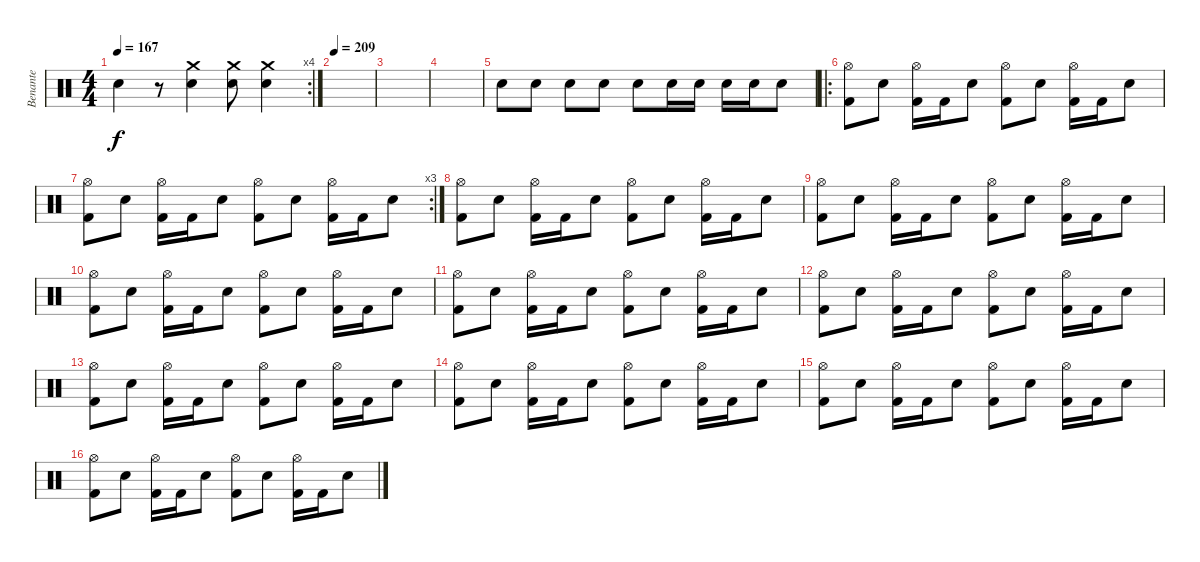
\track ("Benante" "Benante") {solo instrument percussion}
\staff {score}
\articulation defaults
\rc 4
\ts (4 4)
\tempo 167
\clef neutral
\ks c "Electric Snare (hit)".4{dy f}
r.8 ("Electric Snare (hit)" "Crash medium (hit)").4 ("Electric Snare (hit)" "Crash medium (hit)").8 ("Electric Snare (hit)" "Crash medium (hit)").4 |
\tempo 209
|
|
|
"Electric Snare (hit)".8 "Electric Snare (hit)".8 "Electric Snare (hit)".8 "Electric Snare (hit)".8 "Electric Snare (hit)".8 "Electric Snare (hit)".16 "Electric Snare (hit)".16 "Electric Snare (hit)".16 "Electric Snare (hit)".16 "Electric Snare (hit)".8 |
\ro
("Kick (hit) 2" "Hi-Hat (open)").8 "Electric Snare (hit)".8 ("Kick (hit) 2" "Hi-Hat (open)").16 "Kick (hit) 2".16 "Electric Snare (hit)".8 ("Kick (hit) 2" "Hi-Hat (open)").8 "Electric Snare (hit)".8 ("Kick (hit) 2" "Hi-Hat (open)").16 "Kick (hit) 2".16 "Electric Snare (hit)".8 |
\rc 3
("Kick (hit) 2" "Hi-Hat (open)").8 "Electric Snare (hit)".8 ("Kick (hit) 2" "Hi-Hat (open)").16 "Kick (hit) 2".16 "Electric Snare (hit)".8 ("Kick (hit) 2" "Hi-Hat (open)").8 "Electric Snare (hit)".8 ("Kick (hit) 2" "Hi-Hat (open)").16 "Kick (hit) 2".16 "Electric Snare (hit)".8 |
("Kick (hit) 2" "Hi-Hat (open)").8 "Electric Snare (hit)".8 ("Kick (hit) 2" "Hi-Hat (open)").16 "Kick (hit) 2".16 "Electric Snare (hit)".8 ("Kick (hit) 2" "Hi-Hat (open)").8 "Electric Snare (hit)".8 ("Kick (hit) 2" "Hi-Hat (open)").16 "Kick (hit) 2".16 "Electric Snare (hit)".8 |
("Kick (hit) 2" "Hi-Hat (open)").8 "Electric Snare (hit)".8 ("Kick (hit) 2" "Hi-Hat (open)").16 "Kick (hit) 2".16 "Electric Snare (hit)".8 ("Kick (hit) 2" "Hi-Hat (open)").8 "Electric Snare (hit)".8 ("Kick (hit) 2" "Hi-Hat (open)").16 "Kick (hit) 2".16 "Electric Snare (hit)".8 |
("Kick (hit) 2" "Hi-Hat (open)").8 "Electric Snare (hit)".8 ("Kick (hit) 2" "Hi-Hat (open)").16 "Kick (hit) 2".16 "Electric Snare (hit)".8 ("Kick (hit) 2" "Hi-Hat (open)").8 "Electric Snare (hit)".8 ("Kick (hit) 2" "Hi-Hat (open)").16 "Kick (hit) 2".16 "Electric Snare (hit)".8 |
("Kick (hit) 2" "Hi-Hat (open)").8 "Electric Snare (hit)".8 ("Kick (hit) 2" "Hi-Hat (open)").16 "Kick (hit) 2".16 "Electric Snare (hit)".8 ("Kick (hit) 2" "Hi-Hat (open)").8 "Electric Snare (hit)".8 ("Kick (hit) 2" "Hi-Hat (open)").16 "Kick (hit) 2".16 "Electric Snare (hit)".8 |
("Kick (hit) 2" "Hi-Hat (open)").8 "Electric Snare (hit)".8 ("Kick (hit) 2" "Hi-Hat (open)").16 "Kick (hit) 2".16 "Electric Snare (hit)".8 ("Kick (hit) 2" "Hi-Hat (open)").8 "Electric Snare (hit)".8 ("Kick (hit) 2" "Hi-Hat (open)").16 "Kick (hit) 2".16 "Electric Snare (hit)".8 |
("Kick (hit) 2" "Hi-Hat (open)").8 "Electric Snare (hit)".8 ("Kick (hit) 2" "Hi-Hat (open)").16 "Kick (hit) 2".16 "Electric Snare (hit)".8 ("Kick (hit) 2" "Hi-Hat (open)").8 "Electric Snare (hit)".8 ("Kick (hit) 2" "Hi-Hat (open)").16 "Kick (hit) 2".16 "Electric Snare (hit)".8 |
("Kick (hit) 2" "Hi-Hat (open)").8 "Electric Snare (hit)".8 ("Kick (hit) 2" "Hi-Hat (open)").16 "Kick (hit) 2".16 "Electric Snare (hit)".8 ("Kick (hit) 2" "Hi-Hat (open)").8 "Electric Snare (hit)".8 ("Kick (hit) 2" "Hi-Hat (open)").16 "Kick (hit) 2".16 "Electric Snare (hit)".8 |
("Kick (hit) 2" "Hi-Hat (open)").8 "Electric Snare (hit)".8 ("Kick (hit) 2" "Hi-Hat (open)").16 "Kick (hit) 2".16 "Electric Snare (hit)".8 ("Kick (hit) 2" "Hi-Hat (open)").8 "Electric Snare (hit)".8 ("Kick (hit) 2" "Hi-Hat (open)").16 "Kick (hit) 2".16 "Electric Snare (hit)".8 |
("Kick (hit) 2" "Hi-Hat (open)").8 "Electric Snare (hit)".8 ("Kick (hit) 2" "Hi-Hat (open)").16 "Kick (hit) 2".16 "Electric Snare (hit)".8 ("Kick (hit) 2" "Hi-Hat (open)").8 "Electric Snare (hit)".8 ("Kick (hit) 2" "Hi-Hat (open)").16 "Kick (hit) 2".16 "Electric Snare (hit)".8
